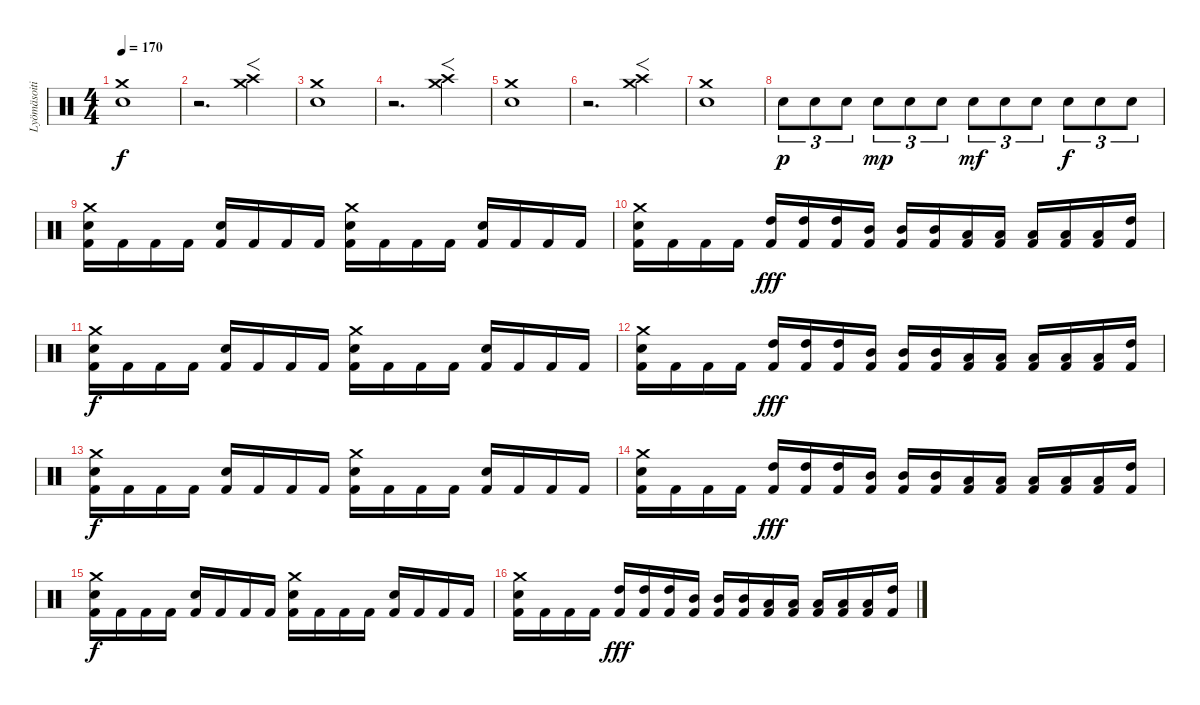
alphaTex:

\track ("Lyömäsoitin" "Lyömäsoiti") {instrument percussion}
\staff {score}
\articulation defaults
\ts (4 4)
\tempo 170
\clef neutral
\ks c
("Crash medium (hit)" "Snare (hit) 2").1{dy f} |
r.2{d} ("Crash high (hit)" "Crash medium (hit)").4{f} |
("Crash medium (hit)" "Snare (hit) 2").1 |
r.2{d} ("Crash high (hit)" "Crash medium (hit)").4{f} |
("Crash medium (hit)" "Snare (hit) 2").1 |
r.2{d} ("Crash high (hit)" "Crash medium (hit)").4{f} |
("Crash medium (hit)" "Snare (hit) 2").1 |
"Snare (hit) 2".8{tu (3 2) dy p} "Snare (hit) 2".8{tu (3 2)} "Snare (hit) 2".8{tu (3 2)} "Snare (hit) 2".8{tu (3 2) dy mp} "Snare (hit) 2".8{tu (3 2)} "Snare (hit) 2".8{tu (3 2)} "Snare (hit) 2".8{tu (3 2) dy mf} "Snare (hit) 2".8{tu (3 2)} "Snare (hit) 2".8{tu (3 2)} "Snare (hit) 2".8{tu (3 2) dy f} "Snare (hit) 2".8{tu (3 2)} "Snare (hit) 2".8{tu (3 2)} |
("Crash medium (hit)" "Kick (hit) 2" "Snare (hit) 2").16 "Kick (hit) 2".16 "Kick (hit) 2".16 "Kick (hit) 2".16 ("Kick (hit) 2" "Snare (hit) 2").16 "Kick (hit) 2".16 "Kick (hit) 2".16 "Kick (hit) 2".16 ("Crash medium (hit)" "Kick (hit) 2" "Snare (hit) 2").16 "Kick (hit) 2".16 "Kick (hit) 2".16 "Kick (hit) 2".16 ("Kick (hit) 2" "Snare (hit) 2").16 "Kick (hit) 2".16 "Kick (hit) 2".16 "Kick (hit) 2".16 |
("Crash medium (hit)" "Kick (hit) 2" "Snare (hit) 2").16 "Kick (hit) 2".16 "Kick (hit) 2".16 "Kick (hit) 2".16 ("High Tom (hit)" "Kick (hit) 2").16{dy fff} ("High Tom (hit)" "Kick (hit) 2").16 ("High Tom (hit)" "Kick (hit) 2").16 ("Mid Tom (hit)" "Kick (hit) 2").16 ("Mid Tom (hit)" "Kick (hit) 2").16 ("Mid Tom (hit)" "Kick (hit) 2").16 ("Low Tom (hit)" "Kick (hit) 2").16 ("Low Tom (hit)" "Kick (hit) 2").16 ("Low Tom (hit)" "Kick (hit) 2").16 ("Low Tom (hit)" "Kick (hit) 2").16 ("Low Tom (hit)" "Kick (hit) 2").16 ("High Tom (hit)" "Kick (hit) 2").16 |
("Crash medium (hit)" "Kick (hit) 2" "Snare (hit) 2").16{dy f} "Kick (hit) 2".16 "Kick (hit) 2".16 "Kick (hit) 2".16 ("Kick (hit) 2" "Snare (hit) 2").16 "Kick (hit) 2".16 "Kick (hit) 2".16 "Kick (hit) 2".16 ("Crash medium (hit)" "Kick (hit) 2" "Snare (hit) 2").16 "Kick (hit) 2".16 "Kick (hit) 2".16 "Kick (hit) 2".16 ("Kick (hit) 2" "Snare (hit) 2").16 "Kick (hit) 2".16 "Kick (hit) 2".16 "Kick (hit) 2".16 |
("Crash medium (hit)" "Kick (hit) 2" "Snare (hit) 2").16 "Kick (hit) 2".16 "Kick (hit) 2".16 "Kick (hit) 2".16 ("High Tom (hit)" "Kick (hit) 2").16{dy fff} ("High Tom (hit)" "Kick (hit) 2").16 ("High Tom (hit)" "Kick (hit) 2").16 ("Mid Tom (hit)" "Kick (hit) 2").16 ("Mid Tom (hit)" "Kick (hit) 2").16 ("Mid Tom (hit)" "Kick (hit) 2").16 ("Low Tom (hit)" "Kick (hit) 2").16 ("Low Tom (hit)" "Kick (hit) 2").16 ("Low Tom (hit)" "Kick (hit) 2").16 ("Low Tom (hit)" "Kick (hit) 2").16 ("Low Tom (hit)" "Kick (hit) 2").16 ("High Tom (hit)" "Kick (hit) 2").16 |
("Crash medium (hit)" "Kick (hit) 2" "Snare (hit) 2").16{dy f} "Kick (hit) 2".16 "Kick (hit) 2".16 "Kick (hit) 2".16 ("Kick (hit) 2" "Snare (hit) 2").16 "Kick (hit) 2".16 "Kick (hit) 2".16 "Kick (hit) 2".16 ("Crash medium (hit)" "Kick (hit) 2" "Snare (hit) 2").16 "Kick (hit) 2".16 "Kick (hit) 2".16 "Kick (hit) 2".16 ("Kick (hit) 2" "Snare (hit) 2").16 "Kick (hit) 2".16 "Kick (hit) 2".16 "Kick (hit) 2".16 |
("Crash medium (hit)" "Kick (hit) 2" "Snare (hit) 2").16 "Kick (hit) 2".16 "Kick (hit) 2".16 "Kick (hit) 2".16 ("High Tom (hit)" "Kick (hit) 2").16{dy fff} ("High Tom (hit)" "Kick (hit) 2").16 ("High Tom (hit)" "Kick (hit) 2").16 ("Mid Tom (hit)" "Kick (hit) 2").16 ("Mid Tom (hit)" "Kick (hit) 2").16 ("Mid Tom (hit)" "Kick (hit) 2").16 ("Low Tom (hit)" "Kick (hit) 2").16 ("Low Tom (hit)" "Kick (hit) 2").16 ("Low Tom (hit)" "Kick (hit) 2").16 ("Low Tom (hit)" "Kick (hit) 2").16 ("Low Tom (hit)" "Kick (hit) 2").16 ("High Tom (hit)" "Kick (hit) 2").16 |
("Crash medium (hit)" "Kick (hit) 2" "Snare (hit) 2").16{dy f} "Kick (hit) 2".16 "Kick (hit) 2".16 "Kick (hit) 2".16 ("Kick (hit) 2" "Snare (hit) 2").16 "Kick (hit) 2".16 "Kick (hit) 2".16 "Kick (hit) 2".16 ("Crash medium (hit)" "Kick (hit) 2" "Snare (hit) 2").16 "Kick (hit) 2".16 "Kick (hit) 2".16 "Kick (hit) 2".16 ("Kick (hit) 2" "Snare (hit) 2").16 "Kick (hit) 2".16 "Kick (hit) 2".16 "Kick (hit) 2".16 |
("Crash medium (hit)" "Kick (hit) 2" "Snare (hit) 2").16 "Kick (hit) 2".16 "Kick (hit) 2".16 "Kick (hit) 2".16 ("High Tom (hit)" "Kick (hit) 2").16{dy fff} ("High Tom (hit)" "Kick (hit) 2").16 ("High Tom (hit)" "Kick (hit) 2").16 ("Mid Tom (hit)" "Kick (hit) 2").16 ("Mid Tom (hit)" "Kick (hit) 2").16 ("Mid Tom (hit)" "Kick (hit) 2").16 ("Low Tom (hit)" "Kick (hit) 2").16 ("Low Tom (hit)" "Kick (hit) 2").16 ("Low Tom (hit)" "Kick (hit) 2").16 ("Low Tom (hit)" "Kick (hit) 2").16 ("Low Tom (hit)" "Kick (hit) 2").16 ("High Tom (hit)" "Kick (hit) 2").16
